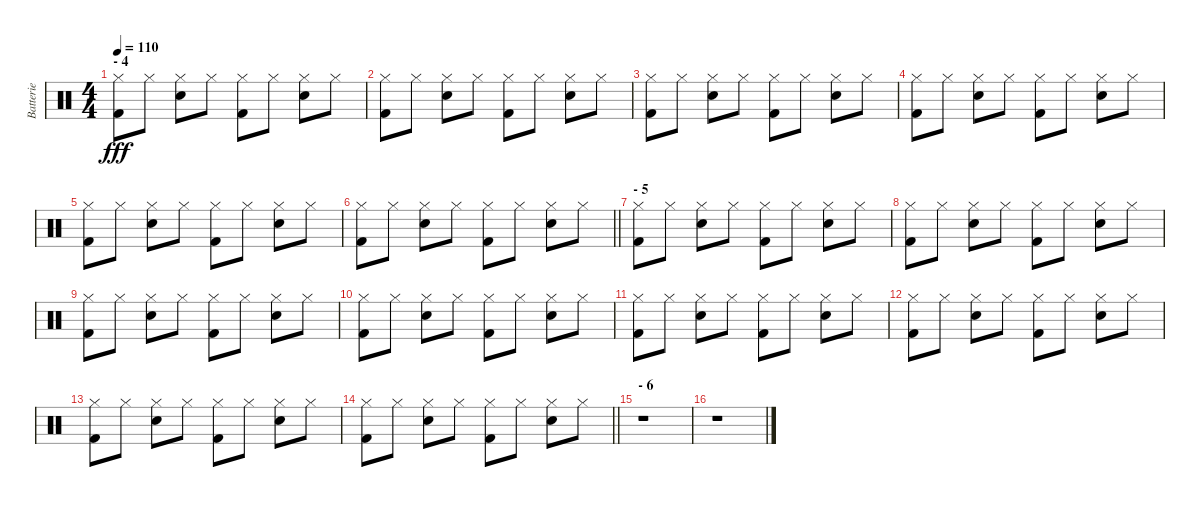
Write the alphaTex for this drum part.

\track ("Batterie" "Batterie") {instrument percussion}
\staff {score}
\articulation defaults
\ts (4 4)
\section ("" "- 4")
\tempo 110
\clef neutral
\ks c
("Hi-Hat (closed)" "Kick (hit) 2").8{dy fff} "Hi-Hat (closed)".8 ("Hi-Hat (closed)" "Snare (hit) 2").8 "Hi-Hat (closed)".8 ("Hi-Hat (closed)" "Kick (hit) 2").8 "Hi-Hat (closed)".8 ("Hi-Hat (closed)" "Snare (hit) 2").8 "Hi-Hat (closed)".8 |
("Hi-Hat (closed)" "Kick (hit) 2").8 "Hi-Hat (closed)".8 ("Hi-Hat (closed)" "Snare (hit) 2").8 "Hi-Hat (closed)".8 ("Hi-Hat (closed)" "Kick (hit) 2").8 "Hi-Hat (closed)".8 ("Hi-Hat (closed)" "Snare (hit) 2").8 "Hi-Hat (closed)".8 |
("Hi-Hat (closed)" "Kick (hit) 2").8 "Hi-Hat (closed)".8 ("Hi-Hat (closed)" "Snare (hit) 2").8 "Hi-Hat (closed)".8 ("Hi-Hat (closed)" "Kick (hit) 2").8 "Hi-Hat (closed)".8 ("Hi-Hat (closed)" "Snare (hit) 2").8 "Hi-Hat (closed)".8 |
("Hi-Hat (closed)" "Kick (hit) 2").8 "Hi-Hat (closed)".8 ("Hi-Hat (closed)" "Snare (hit) 2").8 "Hi-Hat (closed)".8 ("Hi-Hat (closed)" "Kick (hit) 2").8 "Hi-Hat (closed)".8 ("Hi-Hat (closed)" "Snare (hit) 2").8 "Hi-Hat (closed)".8 |
("Hi-Hat (closed)" "Kick (hit) 2").8 "Hi-Hat (closed)".8 ("Hi-Hat (closed)" "Snare (hit) 2").8 "Hi-Hat (closed)".8 ("Hi-Hat (closed)" "Kick (hit) 2").8 "Hi-Hat (closed)".8 ("Hi-Hat (closed)" "Snare (hit) 2").8 "Hi-Hat (closed)".8 |
\barLineRight lightlight
("Hi-Hat (closed)" "Kick (hit) 2").8 "Hi-Hat (closed)".8 ("Hi-Hat (closed)" "Snare (hit) 2").8 "Hi-Hat (closed)".8 ("Hi-Hat (closed)" "Kick (hit) 2").8 "Hi-Hat (closed)".8 ("Hi-Hat (closed)" "Snare (hit) 2").8 "Hi-Hat (closed)".8 |
\section ("" "- 5")
("Hi-Hat (closed)" "Kick (hit) 2").8 "Hi-Hat (closed)".8 ("Hi-Hat (closed)" "Snare (hit) 2").8 "Hi-Hat (closed)".8 ("Hi-Hat (closed)" "Kick (hit) 2").8 "Hi-Hat (closed)".8 ("Hi-Hat (closed)" "Snare (hit) 2").8 "Hi-Hat (closed)".8 |
("Hi-Hat (closed)" "Kick (hit) 2").8 "Hi-Hat (closed)".8 ("Hi-Hat (closed)" "Snare (hit) 2").8 "Hi-Hat (closed)".8 ("Hi-Hat (closed)" "Kick (hit) 2").8 "Hi-Hat (closed)".8 ("Hi-Hat (closed)" "Snare (hit) 2").8 "Hi-Hat (closed)".8 |
("Hi-Hat (closed)" "Kick (hit) 2").8 "Hi-Hat (closed)".8 ("Hi-Hat (closed)" "Snare (hit) 2").8 "Hi-Hat (closed)".8 ("Hi-Hat (closed)" "Kick (hit) 2").8 "Hi-Hat (closed)".8 ("Hi-Hat (closed)" "Snare (hit) 2").8 "Hi-Hat (closed)".8 |
("Hi-Hat (closed)" "Kick (hit) 2").8 "Hi-Hat (closed)".8 ("Hi-Hat (closed)" "Snare (hit) 2").8 "Hi-Hat (closed)".8 ("Hi-Hat (closed)" "Kick (hit) 2").8 "Hi-Hat (closed)".8 ("Hi-Hat (closed)" "Snare (hit) 2").8 "Hi-Hat (closed)".8 |
("Hi-Hat (closed)" "Kick (hit) 2").8 "Hi-Hat (closed)".8 ("Hi-Hat (closed)" "Snare (hit) 2").8 "Hi-Hat (closed)".8 ("Hi-Hat (closed)" "Kick (hit) 2").8 "Hi-Hat (closed)".8 ("Hi-Hat (closed)" "Snare (hit) 2").8 "Hi-Hat (closed)".8 |
("Hi-Hat (closed)" "Kick (hit) 2").8 "Hi-Hat (closed)".8 ("Hi-Hat (closed)" "Snare (hit) 2").8 "Hi-Hat (closed)".8 ("Hi-Hat (closed)" "Kick (hit) 2").8 "Hi-Hat (closed)".8 ("Hi-Hat (closed)" "Snare (hit) 2").8 "Hi-Hat (closed)".8 |
("Hi-Hat (closed)" "Kick (hit) 2").8 "Hi-Hat (closed)".8 ("Hi-Hat (closed)" "Snare (hit) 2").8 "Hi-Hat (closed)".8 ("Hi-Hat (closed)" "Kick (hit) 2").8 "Hi-Hat (closed)".8 ("Hi-Hat (closed)" "Snare (hit) 2").8 "Hi-Hat (closed)".8 |
\barLineRight lightlight
("Hi-Hat (closed)" "Kick (hit) 2").8 "Hi-Hat (closed)".8 ("Hi-Hat (closed)" "Snare (hit) 2").8 "Hi-Hat (closed)".8 ("Hi-Hat (closed)" "Kick (hit) 2").8 "Hi-Hat (closed)".8 ("Hi-Hat (closed)" "Snare (hit) 2").8 "Hi-Hat (closed)".8 |
\section ("" "- 6")
r.1 |
r.1
